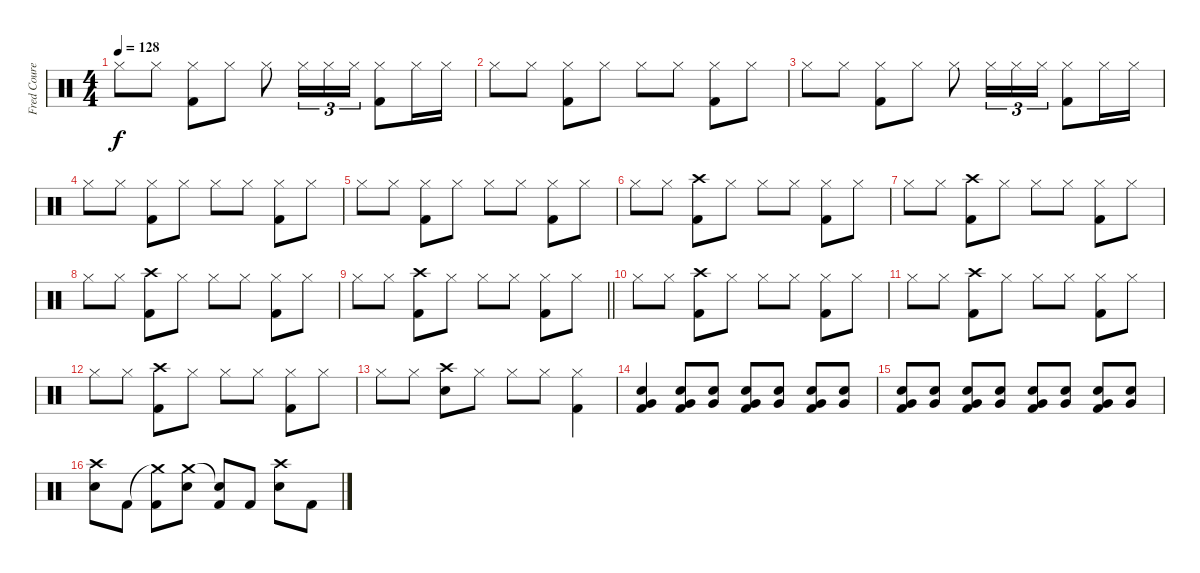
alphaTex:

\track ("Fred Courey" "Fred Coure") {instrument percussion}
\staff {score}
\articulation defaults
\ts (4 4)
\tempo 128
\clef neutral
\ks c "Hi-Hat (closed)".8{dy f} "Hi-Hat (closed)".8
("Hi-Hat (closed)" "Kick (hit) 2").8 "Hi-Hat (closed)".8 "Hi-Hat (closed)".8 "Hi-Hat (closed)".16{tu (3 2)} "Hi-Hat (closed)".16{tu (3 2)} "Hi-Hat (closed)".16{tu (3 2)} ("Hi-Hat (closed)" "Kick (hit) 2").8 "Hi-Hat (closed)".16 "Hi-Hat (closed)".16 |
"Hi-Hat (closed)".8 "Hi-Hat (closed)".8 ("Hi-Hat (closed)" "Kick (hit) 2").8 "Hi-Hat (closed)".8 "Hi-Hat (closed)".8 "Hi-Hat (closed)".8 ("Hi-Hat (closed)" "Kick (hit) 2").8 "Hi-Hat (closed)".8 |
"Hi-Hat (closed)".8 "Hi-Hat (closed)".8 ("Hi-Hat (closed)" "Kick (hit) 2").8 "Hi-Hat (closed)".8 "Hi-Hat (closed)".8 "Hi-Hat (closed)".16{tu (3 2)} "Hi-Hat (closed)".16{tu (3 2)} "Hi-Hat (closed)".16{tu (3 2)} ("Hi-Hat (closed)" "Kick (hit) 2").8 "Hi-Hat (closed)".16 "Hi-Hat (closed)".16 |
"Hi-Hat (closed)".8 "Hi-Hat (closed)".8 ("Hi-Hat (closed)" "Kick (hit) 2").8 "Hi-Hat (closed)".8 "Hi-Hat (closed)".8 "Hi-Hat (closed)".8 ("Hi-Hat (closed)" "Kick (hit) 2").8 "Hi-Hat (closed)".8 |
"Hi-Hat (closed)".8 "Hi-Hat (closed)".8 ("Hi-Hat (closed)" "Kick (hit) 2").8 "Hi-Hat (closed)".8 "Hi-Hat (closed)".8 "Hi-Hat (closed)".8 ("Hi-Hat (closed)" "Kick (hit) 2").8 "Hi-Hat (closed)".8 |
"Hi-Hat (closed)".8 "Hi-Hat (closed)".8 ("Crash high (hit)" "Kick (hit) 2").8 "Hi-Hat (closed)".8 "Hi-Hat (closed)".8 "Hi-Hat (closed)".8 ("Hi-Hat (closed)" "Kick (hit) 2").8 "Hi-Hat (closed)".8 |
"Hi-Hat (closed)".8 "Hi-Hat (closed)".8 ("Crash high (hit)" "Kick (hit) 2").8 "Hi-Hat (closed)".8 "Hi-Hat (closed)".8 "Hi-Hat (closed)".8 ("Hi-Hat (closed)" "Kick (hit) 2").8 "Hi-Hat (closed)".8 |
"Hi-Hat (closed)".8 "Hi-Hat (closed)".8 ("Crash high (hit)" "Kick (hit) 2").8 "Hi-Hat (closed)".8 "Hi-Hat (closed)".8 "Hi-Hat (closed)".8 ("Hi-Hat (closed)" "Kick (hit) 2").8 "Hi-Hat (closed)".8 |
\barLineRight lightlight "Hi-Hat (closed)".8 "Hi-Hat (closed)".8
("Crash high (hit)" "Kick (hit) 2").8 "Hi-Hat (closed)".8 "Hi-Hat (closed)".8 "Hi-Hat (closed)".8 ("Hi-Hat (closed)" "Kick (hit) 2").8 "Hi-Hat (closed)".8 |
"Hi-Hat (closed)".8 "Hi-Hat (closed)".8 ("Crash high (hit)" "Kick (hit) 2").8 "Hi-Hat (closed)".8 "Hi-Hat (closed)".8 "Hi-Hat (closed)".8 ("Hi-Hat (closed)" "Kick (hit) 2").8 "Hi-Hat (closed)".8 |
"Hi-Hat (closed)".8 "Hi-Hat (closed)".8 ("Crash high (hit)" "Kick (hit) 2").8 "Hi-Hat (closed)".8 "Hi-Hat (closed)".8 "Hi-Hat (closed)".8 ("Hi-Hat (closed)" "Kick (hit) 2").8 "Hi-Hat (closed)".8 |
"Hi-Hat (closed)".8 "Hi-Hat (closed)".8 ("Crash high (hit)" "Kick (hit) 2").8 "Hi-Hat (closed)".8 "Hi-Hat (closed)".8 "Hi-Hat (closed)".8 ("Hi-Hat (closed)" "Kick (hit) 2").8 "Hi-Hat (closed)".8 |
"Hi-Hat (closed)".8 "Hi-Hat (closed)".8 ("Crash high (hit)" "Snare (hit) 2").8 "Hi-Hat (closed)".8 "Hi-Hat (closed)".8 "Hi-Hat (closed)".8 ("Hi-Hat (closed)" "Kick (hit) 2").4 |
("Very Low Tom (hit)" "Snare (hit) 2" "Kick (hit) 2").4 ("Very Low Tom (hit)" "Snare (hit) 2" "Kick (hit) 2").8 ("Very Low Tom (hit)" "Snare (hit) 2").8 ("Very Low Tom (hit)" "Snare (hit) 2" "Kick (hit) 2").8 ("Very Low Tom (hit)" "Snare (hit) 2").8 ("Very Low Tom (hit)" "Snare (hit) 2" "Kick (hit) 2").8 ("Very Low Tom (hit)" "Snare (hit) 2").8 |
("Very Low Tom (hit)" "Snare (hit) 2" "Kick (hit) 2").8 ("Very Low Tom (hit)" "Snare (hit) 2").8 ("Very Low Tom (hit)" "Snare (hit) 2" "Kick (hit) 2").8 ("Very Low Tom (hit)" "Snare (hit) 2").8 ("Very Low Tom (hit)" "Snare (hit) 2" "Kick (hit) 2").8 ("Very Low Tom (hit)" "Snare (hit) 2").8 ("Very Low Tom (hit)" "Snare (hit) 2" "Kick (hit) 2").8 ("Very Low Tom (hit)" "Snare (hit) 2").8 |
("Crash high (hit)" "Snare (hit) 2").8 "Kick (hit) 2".8 ("Crash medium (hit)"{t} "Kick (hit) 2").8 ("Crash medium (hit)" "Snare (hit) 2").8 ("Snare (hit)"{t} "Kick (hit) 2").8 "Kick (hit) 2".8 ("Crash high (hit)" "Snare (hit) 2").8 "Kick (hit) 2".8
